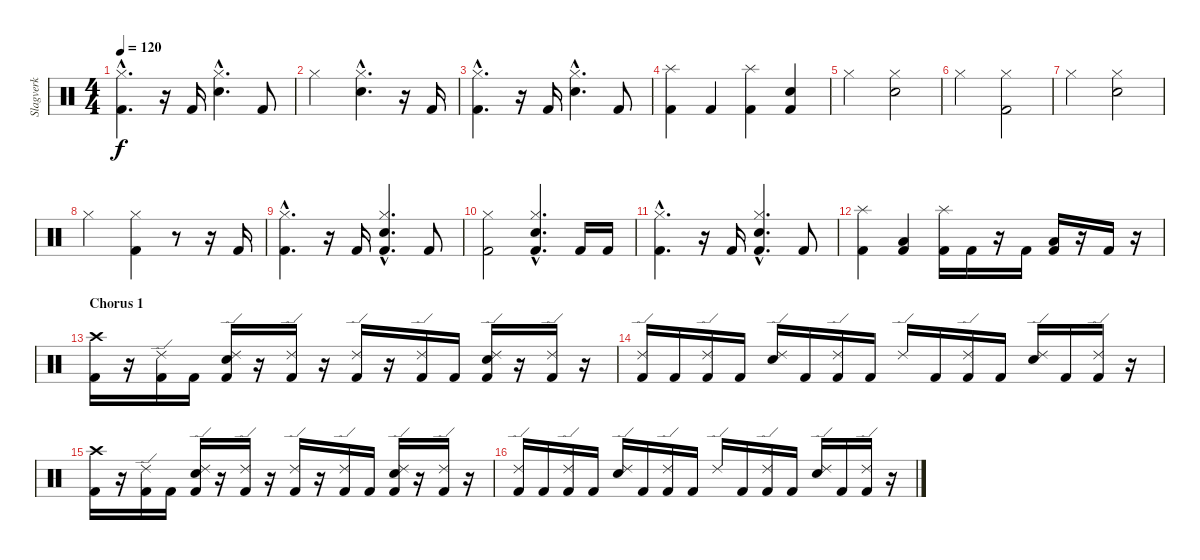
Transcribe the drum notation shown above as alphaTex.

\track ("Slagverk" "Slagverk") {instrument percussion}
\staff {score}
\articulation defaults
\ts (4 4)
\tempo 120
\clef neutral
\ks c
("Kick (hit) 2"{hac} "Hi-Hat (closed)"{hac}).4{d dy f} r.16 "Kick (hit) 2".16 ("Electric Snare (hit)"{hac} "Hi-Hat (closed)"{hac}).4{d} "Kick (hit) 2".8 |
"Hi-Hat (closed)".2 ("Electric Snare (hit)"{hac} "Hi-Hat (closed)"{hac}).4{d} r.16 "Kick (hit) 2".16 |
("Kick (hit) 2"{hac} "Hi-Hat (closed)"{hac}).4{d} r.16 "Kick (hit) 2".16 ("Electric Snare (hit)"{hac} "Hi-Hat (closed)"{hac}).4{d} "Kick (hit) 2".8 |
("Kick (hit) 2" "Splash (hit)").4 "Kick (hit) 2".4 ("Kick (hit) 2" "Splash (hit)").4 ("Kick (hit) 2" "Electric Snare (hit)").4 |
"Hi-Hat (closed)".2 ("Electric Snare (hit)" "Hi-Hat (closed)").2 |
"Hi-Hat (closed)".2 ("Kick (hit) 2" "Hi-Hat (closed)").2 |
"Hi-Hat (closed)".2 ("Electric Snare (hit)" "Hi-Hat (closed)").2 |
"Hi-Hat (closed)".2 ("Kick (hit) 2" "Hi-Hat (closed)").4 r.8 r.16 "Kick (hit) 2".16 |
("Kick (hit) 2"{hac} "Hi-Hat (closed)"{hac}).4{d} r.16 "Kick (hit) 2".16 ("Kick (hit) 2"{hac} "Electric Snare (hit)"{hac} "Hi-Hat (closed)"{hac}).4{d} "Kick (hit) 2".8 |
("Kick (hit) 2" "Hi-Hat (closed)").2 ("Kick (hit) 2"{hac} "Electric Snare (hit)"{hac} "Hi-Hat (closed)"{hac}).4{d} "Kick (hit) 2".16 "Kick (hit) 2".16 |
("Kick (hit) 2"{hac} "Hi-Hat (closed)"{hac}).4{d} r.16 "Kick (hit) 2".16 ("Kick (hit) 2"{hac} "Electric Snare (hit)"{hac} "Hi-Hat (closed)"{hac}).4{d} "Kick (hit) 2".8 |
("Kick (hit) 2" "Splash (hit)").4 ("Kick (hit) 2" "Low Floor Tom (hit)").4 ("Kick (hit) 2" "Splash (hit)").16 "Kick (hit) 2".16 r.16 "Kick (hit) 2".16 ("Kick (hit) 2" "Low Floor Tom (hit)").16 r.16 "Kick (hit) 2".16 r.16 |
\section ("" "Chorus 1")
("Kick (hit) 2" "Crash high (hit)").16 r.16 ("Kick (hit) 2" "Ride (edge) 2").16 "Kick (hit) 2".16 ("Kick (hit) 2" "Electric Snare (hit)" "Ride (edge) 2").16 r.16 ("Kick (hit) 2" "Ride (edge) 2").16 r.16 ("Kick (hit) 2" "Ride (edge) 2").16 r.16 ("Kick (hit) 2" "Ride (edge) 2").16 "Kick (hit) 2".16 ("Kick (hit) 2" "Electric Snare (hit)" "Ride (edge) 2").16 r.16 ("Kick (hit) 2" "Ride (edge) 2").16 r.16 |
("Kick (hit) 2" "Ride (edge) 2").16 "Kick (hit) 2".16 ("Kick (hit) 2" "Ride (edge) 2").16 "Kick (hit) 2".16 ("Electric Snare (hit)" "Ride (edge) 2").16 "Kick (hit) 2".16 ("Kick (hit) 2" "Ride (edge) 2").16 "Kick (hit) 2".16 "Ride (edge) 2".16 "Kick (hit) 2".16 ("Kick (hit) 2" "Ride (edge) 2").16 "Kick (hit) 2".16 ("Electric Snare (hit)" "Ride (edge) 2").16 "Kick (hit) 2".16 ("Kick (hit) 2" "Ride (edge) 2").16 r.16 |
("Kick (hit) 2" "Crash high (hit)").16 r.16 ("Kick (hit) 2" "Ride (edge) 2").16 "Kick (hit) 2".16 ("Kick (hit) 2" "Electric Snare (hit)" "Ride (edge) 2").16 r.16 ("Kick (hit) 2" "Ride (edge) 2").16 r.16 ("Kick (hit) 2" "Ride (edge) 2").16 r.16 ("Kick (hit) 2" "Ride (edge) 2").16 "Kick (hit) 2".16 ("Kick (hit) 2" "Electric Snare (hit)" "Ride (edge) 2").16 r.16 ("Kick (hit) 2" "Ride (edge) 2").16 r.16 |
("Kick (hit) 2" "Ride (edge) 2").16 "Kick (hit) 2".16 ("Kick (hit) 2" "Ride (edge) 2").16 "Kick (hit) 2".16 ("Electric Snare (hit)" "Ride (edge) 2").16 "Kick (hit) 2".16 ("Kick (hit) 2" "Ride (edge) 2").16 "Kick (hit) 2".16 "Ride (edge) 2".16 "Kick (hit) 2".16 ("Kick (hit) 2" "Ride (edge) 2").16 "Kick (hit) 2".16 ("Electric Snare (hit)" "Ride (edge) 2").16 "Kick (hit) 2".16 ("Kick (hit) 2" "Ride (edge) 2").16 r.16
